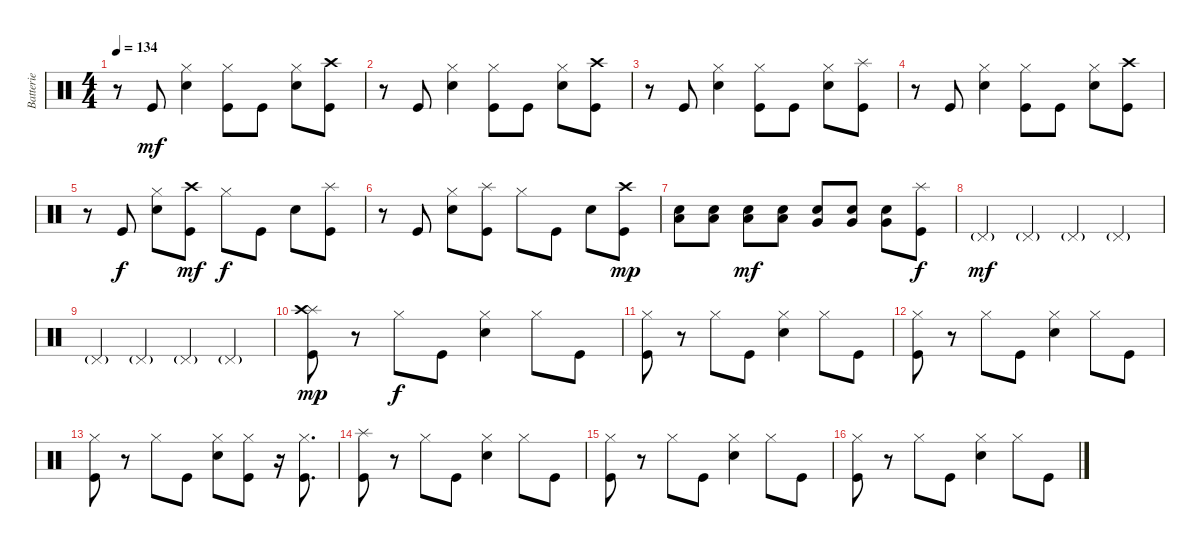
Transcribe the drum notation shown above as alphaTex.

\track ("Batterie" "Batterie") {instrument percussion}
\staff {score}
\articulation defaults
\ts (4 4)
\tempo 134
\clef neutral
\ks c
r.8{dy mf} "Kick (hit)".8 ("Hi-Hat (closed)" "Snare (hit) 2").4 ("Hi-Hat (closed)" "Kick (hit)").8 "Kick (hit)".8 ("Hi-Hat (closed)" "Snare (hit) 2").8 ("Crash high (hit)" "Kick (hit)").8 |
r.8 "Kick (hit)".8 ("Hi-Hat (closed)" "Snare (hit) 2").4 ("Hi-Hat (closed)" "Kick (hit)").8 "Kick (hit)".8 ("Hi-Hat (closed)" "Snare (hit) 2").8 ("Crash high (hit)" "Kick (hit)").8 |
r.8 "Kick (hit)".8 ("Hi-Hat (closed)" "Snare (hit) 2").4 ("Hi-Hat (closed)" "Kick (hit)").8 "Kick (hit)".8 ("Hi-Hat (closed)" "Snare (hit) 2").8 ("Splash (hit)" "Kick (hit)").8 |
r.8 "Kick (hit)".8 ("Hi-Hat (closed)" "Snare (hit) 2").4 ("Hi-Hat (closed)" "Kick (hit)").8 "Kick (hit)".8 ("Hi-Hat (closed)" "Snare (hit) 2").8 ("Crash high (hit)" "Kick (hit)").8 |
r.8 "Kick (hit)".8{dy f} ("Hi-Hat (closed)" "Snare (hit) 2").8 ("Crash high (hit)" "Kick (hit)").8{dy mf} "Hi-Hat (closed)".8{dy f} "Kick (hit)".8 "Snare (hit) 2".8 ("Splash (hit)" "Kick (hit)").8 |
r.8 "Kick (hit)".8 ("Hi-Hat (closed)" "Snare (hit) 2").8 ("Splash (hit)" "Kick (hit)").8 "Hi-Hat (closed)".8 "Kick (hit)".8 "Snare (hit) 2".8 ("Crash high (hit)" "Kick (hit)").8{dy mp} |
("Snare (hit) 2" "Low Floor Tom (hit)").8 ("Snare (hit) 2" "Low Floor Tom (hit)").8 ("Snare (hit) 2" "Low Floor Tom (hit)").8{dy mf} ("Snare (hit) 2" "Low Floor Tom (hit)").8 ("Snare (hit) 2" "Very Low Tom (hit)").8 ("Snare (hit) 2" "Very Low Tom (hit)").8 ("Snare (hit) 2" "Very Low Tom (hit)").8 ("Splash (hit)" "Kick (hit)").8{dy f} |
"Pedal Hi-Hat (hit)"{g}.4{dy mf} "Pedal Hi-Hat (hit)"{g}.4 "Pedal Hi-Hat (hit)"{g}.4 "Pedal Hi-Hat (hit)"{g}.4 |
"Pedal Hi-Hat (hit)"{g}.4 "Pedal Hi-Hat (hit)"{g}.4 "Pedal Hi-Hat (hit)"{g}.4 "Pedal Hi-Hat (hit)"{g}.4 |
("Splash (hit)" "Crash high (hit)" "Kick (hit)").8{dy mp} r.8 "Hi-Hat (closed)".8{dy f} "Kick (hit)".8 ("Hi-Hat (closed)" "Snare (hit) 2").4 "Hi-Hat (closed)".8 "Kick (hit)".8 |
("Hi-Hat (closed)" "Kick (hit)").8 r.8 "Hi-Hat (closed)".8 "Kick (hit)".8 ("Hi-Hat (closed)" "Snare (hit) 2").4 "Hi-Hat (closed)".8 "Kick (hit)".8 |
("Hi-Hat (closed)" "Kick (hit)").8 r.8 "Hi-Hat (closed)".8 "Kick (hit)".8 ("Hi-Hat (closed)" "Snare (hit) 2").4 "Hi-Hat (closed)".8 "Kick (hit)".8 |
("Hi-Hat (closed)" "Kick (hit)").8 r.8 "Hi-Hat (closed)".8 "Kick (hit)".8 ("Hi-Hat (closed)" "Snare (hit) 2").8 ("Hi-Hat (closed)" "Kick (hit)").8 r.16 ("Hi-Hat (closed)" "Kick (hit)").8{d} |
("Splash (hit)" "Kick (hit)").8 r.8 "Hi-Hat (closed)".8 "Kick (hit)".8 ("Hi-Hat (closed)" "Snare (hit) 2").4 "Hi-Hat (closed)".8 "Kick (hit)".8 |
("Hi-Hat (closed)" "Kick (hit)").8 r.8 "Hi-Hat (closed)".8 "Kick (hit)".8 ("Hi-Hat (closed)" "Snare (hit) 2").4 "Hi-Hat (closed)".8 "Kick (hit)".8 |
("Hi-Hat (closed)" "Kick (hit)").8 r.8 "Hi-Hat (closed)".8 "Kick (hit)".8 ("Hi-Hat (closed)" "Snare (hit) 2").4 "Hi-Hat (closed)".8 "Kick (hit)".8
